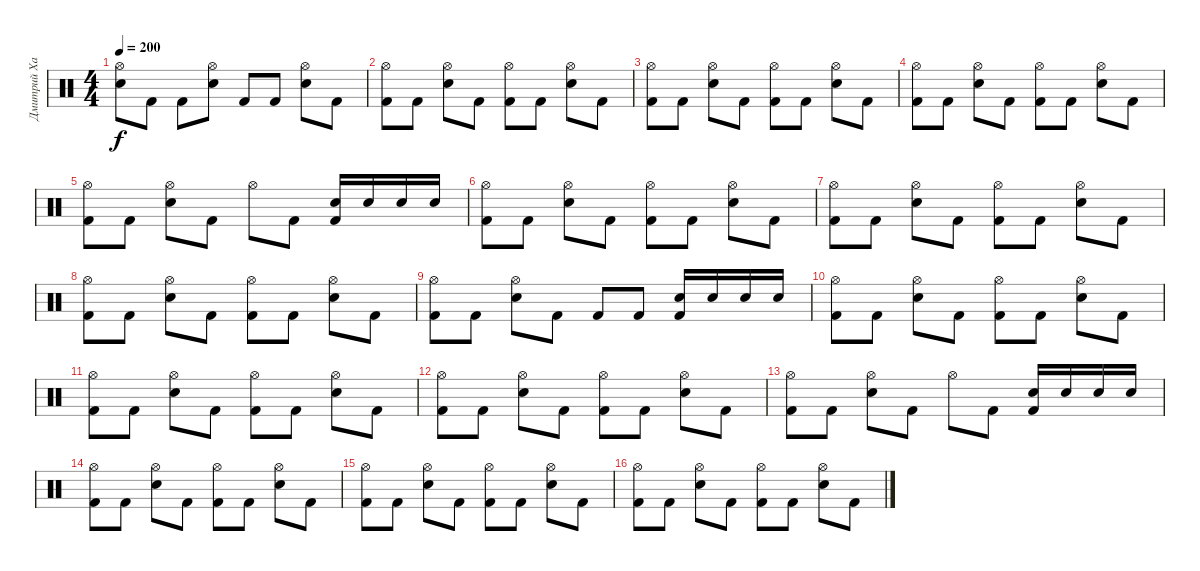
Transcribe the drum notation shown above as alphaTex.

\track ("Дмитрий Хакимов" "Дмитрий Ха") {instrument percussion}
\staff {score}
\articulation defaults
\ts (4 4)
\tempo 200
\clef neutral
\ks c
("Hi-Hat (open)" "Electric Snare (hit)").8{dy f} "Kick (hit) 2".8 "Kick (hit) 2".8 ("Hi-Hat (open)" "Electric Snare (hit)").8 "Kick (hit) 2".8 "Kick (hit) 2".8 ("Hi-Hat (open)" "Electric Snare (hit)").8 "Kick (hit) 2".8 |
("Kick (hit) 2" "Hi-Hat (open)").8 "Kick (hit) 2".8 ("Electric Snare (hit)" "Hi-Hat (open)").8 "Kick (hit) 2".8 ("Kick (hit) 2" "Hi-Hat (open)").8 "Kick (hit) 2".8 ("Electric Snare (hit)" "Hi-Hat (open)").8 "Kick (hit) 2".8 |
("Kick (hit) 2" "Hi-Hat (open)").8 "Kick (hit) 2".8 ("Electric Snare (hit)" "Hi-Hat (open)").8 "Kick (hit) 2".8 ("Kick (hit) 2" "Hi-Hat (open)").8 "Kick (hit) 2".8 ("Electric Snare (hit)" "Hi-Hat (open)").8 "Kick (hit) 2".8 |
("Kick (hit) 2" "Hi-Hat (open)").8 "Kick (hit) 2".8 ("Electric Snare (hit)" "Hi-Hat (open)").8 "Kick (hit) 2".8 ("Kick (hit) 2" "Hi-Hat (open)").8 "Kick (hit) 2".8 ("Electric Snare (hit)" "Hi-Hat (open)").8 "Kick (hit) 2".8 |
("Kick (hit) 2" "Hi-Hat (open)").8 "Kick (hit) 2".8 ("Electric Snare (hit)" "Hi-Hat (open)").8 "Kick (hit) 2".8 "Hi-Hat (open)".8 "Kick (hit) 2".8 ("Electric Snare (hit)" "Kick (hit) 2").16 "Electric Snare (hit)".16 "Electric Snare (hit)".16 "Electric Snare (hit)".16 |
("Kick (hit) 2" "Hi-Hat (open)").8 "Kick (hit) 2".8 ("Electric Snare (hit)" "Hi-Hat (open)").8 "Kick (hit) 2".8 ("Kick (hit) 2" "Hi-Hat (open)").8 "Kick (hit) 2".8 ("Electric Snare (hit)" "Hi-Hat (open)").8 "Kick (hit) 2".8 |
("Kick (hit) 2" "Hi-Hat (open)").8 "Kick (hit) 2".8 ("Electric Snare (hit)" "Hi-Hat (open)").8 "Kick (hit) 2".8 ("Kick (hit) 2" "Hi-Hat (open)").8 "Kick (hit) 2".8 ("Electric Snare (hit)" "Hi-Hat (open)").8 "Kick (hit) 2".8 |
("Kick (hit) 2" "Hi-Hat (open)").8 "Kick (hit) 2".8 ("Electric Snare (hit)" "Hi-Hat (open)").8 "Kick (hit) 2".8 ("Kick (hit) 2" "Hi-Hat (open)").8 "Kick (hit) 2".8 ("Electric Snare (hit)" "Hi-Hat (open)").8 "Kick (hit) 2".8 |
("Kick (hit) 2" "Hi-Hat (open)").8 "Kick (hit) 2".8 ("Electric Snare (hit)" "Hi-Hat (open)").8 "Kick (hit) 2".8 "Kick (hit) 2".8 "Kick (hit) 2".8 ("Electric Snare (hit)" "Kick (hit) 2").16 "Electric Snare (hit)".16 "Electric Snare (hit)".16 "Electric Snare (hit)".16 |
("Kick (hit) 2" "Hi-Hat (open)").8 "Kick (hit) 2".8 ("Electric Snare (hit)" "Hi-Hat (open)").8 "Kick (hit) 2".8 ("Kick (hit) 2" "Hi-Hat (open)").8 "Kick (hit) 2".8 ("Electric Snare (hit)" "Hi-Hat (open)").8 "Kick (hit) 2".8 |
("Kick (hit) 2" "Hi-Hat (open)").8 "Kick (hit) 2".8 ("Electric Snare (hit)" "Hi-Hat (open)").8 "Kick (hit) 2".8 ("Kick (hit) 2" "Hi-Hat (open)").8 "Kick (hit) 2".8 ("Electric Snare (hit)" "Hi-Hat (open)").8 "Kick (hit) 2".8 |
("Kick (hit) 2" "Hi-Hat (open)").8 "Kick (hit) 2".8 ("Electric Snare (hit)" "Hi-Hat (open)").8 "Kick (hit) 2".8 ("Kick (hit) 2" "Hi-Hat (open)").8 "Kick (hit) 2".8 ("Electric Snare (hit)" "Hi-Hat (open)").8 "Kick (hit) 2".8 |
("Kick (hit) 2" "Hi-Hat (open)").8 "Kick (hit) 2".8 ("Electric Snare (hit)" "Hi-Hat (open)").8 "Kick (hit) 2".8 "Hi-Hat (open)".8 "Kick (hit) 2".8 ("Electric Snare (hit)" "Kick (hit) 2").16 "Electric Snare (hit)".16 "Electric Snare (hit)".16 "Electric Snare (hit)".16 |
("Kick (hit) 2" "Hi-Hat (open)").8 "Kick (hit) 2".8 ("Electric Snare (hit)" "Hi-Hat (open)").8 "Kick (hit) 2".8 ("Kick (hit) 2" "Hi-Hat (open)").8 "Kick (hit) 2".8 ("Electric Snare (hit)" "Hi-Hat (open)").8 "Kick (hit) 2".8 |
("Kick (hit) 2" "Hi-Hat (open)").8 "Kick (hit) 2".8 ("Electric Snare (hit)" "Hi-Hat (open)").8 "Kick (hit) 2".8 ("Kick (hit) 2" "Hi-Hat (open)").8 "Kick (hit) 2".8 ("Electric Snare (hit)" "Hi-Hat (open)").8 "Kick (hit) 2".8 |
("Kick (hit) 2" "Hi-Hat (open)").8 "Kick (hit) 2".8 ("Electric Snare (hit)" "Hi-Hat (open)").8 "Kick (hit) 2".8 ("Kick (hit) 2" "Hi-Hat (open)").8 "Kick (hit) 2".8 ("Electric Snare (hit)" "Hi-Hat (open)").8 "Kick (hit) 2".8
